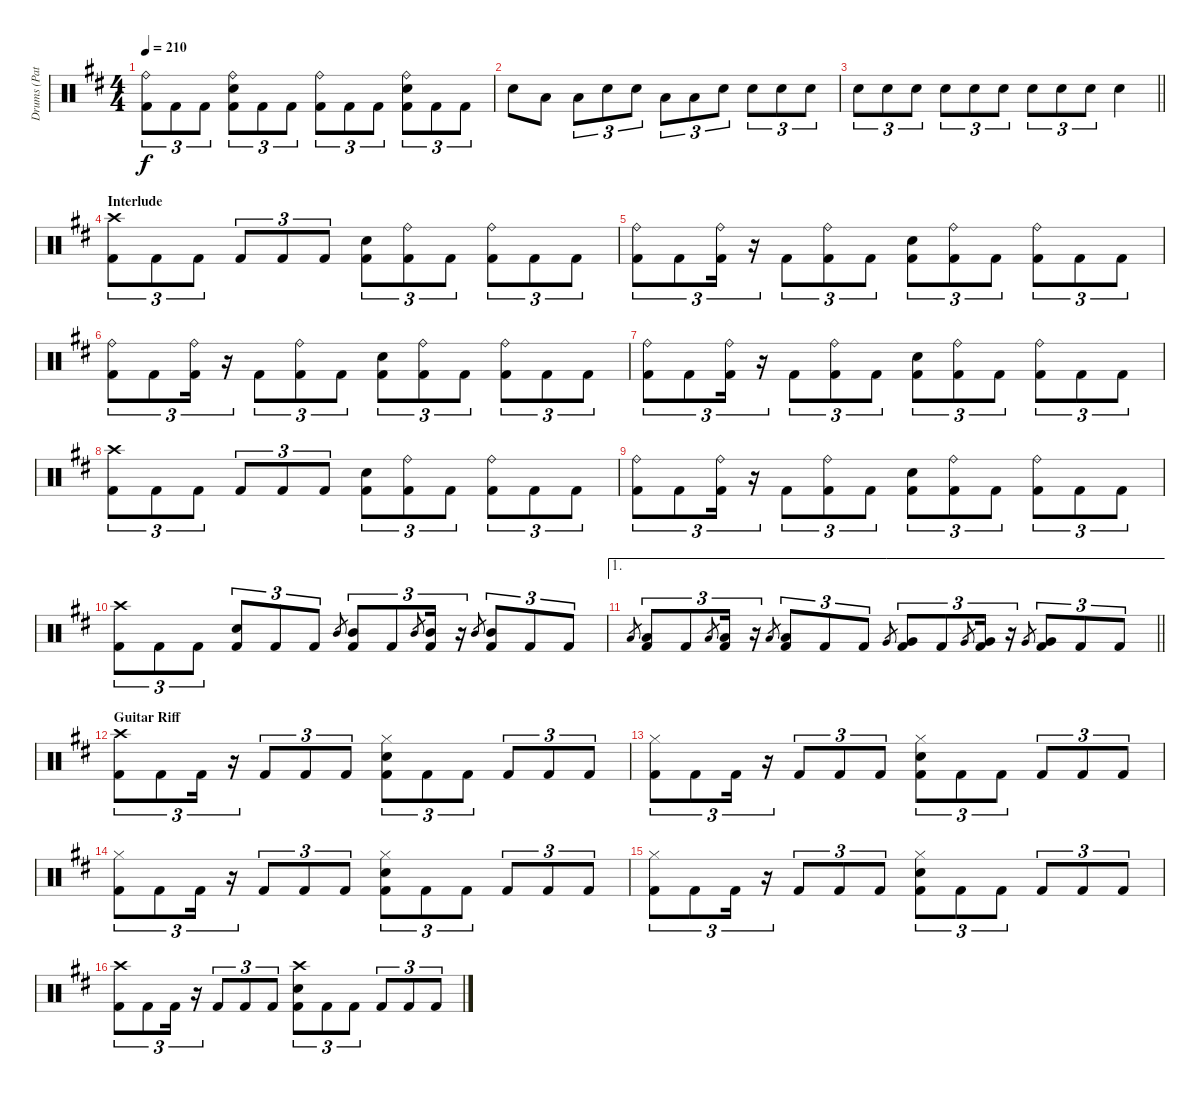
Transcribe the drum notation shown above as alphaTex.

\track ("Drums (Patrick Johansson)" "Drums (Pat") {instrument percussion}
\staff {score}
\articulation defaults
\ts (4 4)
\tempo 210
\clef neutral
\ks d
("Ride (bell)" "Kick (hit) 2").8{tu (3 2) dy f} "Kick (hit) 2".8{tu (3 2)} "Kick (hit) 2".8{tu (3 2)} ("Ride (bell)" "Electric Snare (hit)" "Kick (hit) 2").8{tu (3 2)} "Kick (hit) 2".8{tu (3 2)} "Kick (hit) 2".8{tu (3 2)} ("Ride (bell)" "Kick (hit) 2").8{tu (3 2)} "Kick (hit) 2".8{tu (3 2)} "Kick (hit) 2".8{tu (3 2)} ("Ride (bell)" "Electric Snare (hit)" "Kick (hit) 2").8{tu (3 2)} "Kick (hit) 2".8{tu (3 2)} "Kick (hit) 2".8{tu (3 2)} |
"Electric Snare (hit)".8 "Low Tom (hit)".8 "Low Tom (hit)".8{tu (3 2)} "Electric Snare (hit)".8{tu (3 2)} "Electric Snare (hit)".8{tu (3 2)} "Low Tom (hit)".8{tu (3 2)} "Low Tom (hit)".8{tu (3 2)} "Electric Snare (hit)".8{tu (3 2)} "Electric Snare (hit)".8{tu (3 2)} "Electric Snare (hit)".8{tu (3 2)} "Electric Snare (hit)".8{tu (3 2)} |
\barLineRight lightlight "Electric Snare (hit)".8{tu (3 2)} "Electric Snare (hit)".8{tu (3 2)} "Electric Snare (hit)".8{tu (3 2)} "Electric Snare (hit)".8{tu (3 2)} "Electric Snare (hit)".8{tu (3 2)} "Electric Snare (hit)".8{tu (3 2)} "Electric Snare (hit)".8{tu (3 2)} "Electric Snare (hit)".8{tu (3 2)} "Electric Snare (hit)".8{tu (3 2)} "Electric Snare (hit)".4
|
\section ("" "Interlude")
("Crash high (hit)" "Kick (hit) 2").8{tu (3 2)} "Kick (hit) 2".8{tu (3 2)} "Kick (hit) 2".8{tu (3 2)} "Kick (hit) 2".8{tu (3 2)} "Kick (hit) 2".8{tu (3 2)} "Kick (hit) 2".8{tu (3 2)} ("Electric Snare (hit)" "Kick (hit) 2").8{tu (3 2)} ("Ride (bell)" "Kick (hit) 2").8{tu (3 2)} "Kick (hit) 2".8{tu (3 2)} ("Ride (bell)" "Kick (hit) 2").8{tu (3 2)} "Kick (hit) 2".8{tu (3 2)} "Kick (hit) 2".8{tu (3 2)} |
("Ride (bell)" "Kick (hit) 2").8{tu (3 2)} "Kick (hit) 2".8{tu (3 2)} ("Ride (bell)" "Kick (hit) 2").16{tu (3 2)} r.16{tu (3 2)} "Kick (hit) 2".8{tu (3 2)} ("Ride (bell)" "Kick (hit) 2").8{tu (3 2)} "Kick (hit) 2".8{tu (3 2)} ("Electric Snare (hit)" "Kick (hit) 2").8{tu (3 2)} ("Ride (bell)" "Kick (hit) 2").8{tu (3 2)} "Kick (hit) 2".8{tu (3 2)} ("Ride (bell)" "Kick (hit) 2").8{tu (3 2)} "Kick (hit) 2".8{tu (3 2)} "Kick (hit) 2".8{tu (3 2)} |
("Ride (bell)" "Kick (hit) 2").8{tu (3 2)} "Kick (hit) 2".8{tu (3 2)} ("Ride (bell)" "Kick (hit) 2").16{tu (3 2)} r.16{tu (3 2)} "Kick (hit) 2".8{tu (3 2)} ("Ride (bell)" "Kick (hit) 2").8{tu (3 2)} "Kick (hit) 2".8{tu (3 2)} ("Electric Snare (hit)" "Kick (hit) 2").8{tu (3 2)} ("Ride (bell)" "Kick (hit) 2").8{tu (3 2)} "Kick (hit) 2".8{tu (3 2)} ("Ride (bell)" "Kick (hit) 2").8{tu (3 2)} "Kick (hit) 2".8{tu (3 2)} "Kick (hit) 2".8{tu (3 2)} |
("Ride (bell)" "Kick (hit) 2").8{tu (3 2)} "Kick (hit) 2".8{tu (3 2)} ("Ride (bell)" "Kick (hit) 2").16{tu (3 2)} r.16{tu (3 2)} "Kick (hit) 2".8{tu (3 2)} ("Ride (bell)" "Kick (hit) 2").8{tu (3 2)} "Kick (hit) 2".8{tu (3 2)} ("Electric Snare (hit)" "Kick (hit) 2").8{tu (3 2)} ("Ride (bell)" "Kick (hit) 2").8{tu (3 2)} "Kick (hit) 2".8{tu (3 2)} ("Ride (bell)" "Kick (hit) 2").8{tu (3 2)} "Kick (hit) 2".8{tu (3 2)} "Kick (hit) 2".8{tu (3 2)} |
("Crash high (hit)" "Kick (hit) 2").8{tu (3 2)} "Kick (hit) 2".8{tu (3 2)} "Kick (hit) 2".8{tu (3 2)} "Kick (hit) 2".8{tu (3 2)} "Kick (hit) 2".8{tu (3 2)} "Kick (hit) 2".8{tu (3 2)} ("Electric Snare (hit)" "Kick (hit) 2").8{tu (3 2)} ("Ride (bell)" "Kick (hit) 2").8{tu (3 2)} "Kick (hit) 2".8{tu (3 2)} ("Ride (bell)" "Kick (hit) 2").8{tu (3 2)} "Kick (hit) 2".8{tu (3 2)} "Kick (hit) 2".8{tu (3 2)} |
("Ride (bell)" "Kick (hit) 2").8{tu (3 2)} "Kick (hit) 2".8{tu (3 2)} ("Ride (bell)" "Kick (hit) 2").16{tu (3 2)} r.16{tu (3 2)} "Kick (hit) 2".8{tu (3 2)} ("Ride (bell)" "Kick (hit) 2").8{tu (3 2)} "Kick (hit) 2".8{tu (3 2)} ("Electric Snare (hit)" "Kick (hit) 2").8{tu (3 2)} ("Ride (bell)" "Kick (hit) 2").8{tu (3 2)} "Kick (hit) 2".8{tu (3 2)} ("Ride (bell)" "Kick (hit) 2").8{tu (3 2)} "Kick (hit) 2".8{tu (3 2)} "Kick (hit) 2".8{tu (3 2)} |
("Crash high (hit)" "Kick (hit) 2").8{tu (3 2)} "Kick (hit) 2".8{tu (3 2)} "Kick (hit) 2".8{tu (3 2)} ("Electric Snare (hit)" "Kick (hit) 2").8{tu (3 2)} "Kick (hit) 2".8{tu (3 2)} "Kick (hit) 2".8{tu (3 2)} "Mid Tom (hit)".8{gr} ("Mid Tom (hit)" "Kick (hit) 2").8{tu (3 2)} "Kick (hit) 2".8{tu (3 2)} "Mid Tom (hit)".8{gr} ("Mid Tom (hit)" "Kick (hit) 2").16{tu (3 2)} r.16{tu (3 2)} "Mid Tom (hit)".8{gr} ("Mid Tom (hit)" "Kick (hit) 2").8{tu (3 2)} "Kick (hit) 2".8{tu (3 2)} "Kick (hit) 2".8{tu (3 2)} |
\ae 1
\barLineRight lightlight "Low Tom (hit)".8{gr}
("Low Tom (hit)" "Kick (hit) 2").8{tu (3 2)} "Kick (hit) 2".8{tu (3 2)} "Low Tom (hit)".8{gr} ("Low Tom (hit)" "Kick (hit) 2").16{tu (3 2)} r.16{tu (3 2)} "Low Tom (hit)".8{gr} ("Low Tom (hit)" "Kick (hit) 2").8{tu (3 2)} "Kick (hit) 2".8{tu (3 2)} "Kick (hit) 2".8{tu (3 2)} "Very Low Tom (hit)".8{gr} ("Very Low Tom (hit)" "Kick (hit) 2").8{tu (3 2)} "Kick (hit) 2".8{tu (3 2)} "Very Low Tom (hit)".8{gr} ("Very Low Tom (hit)" "Kick (hit) 2").16{tu (3 2)} r.16{tu (3 2)} "Very Low Tom (hit)".8{gr} ("Very Low Tom (hit)" "Kick (hit) 2").8{tu (3 2)} "Kick (hit) 2".8{tu (3 2)} "Kick (hit) 2".8{tu (3 2)} |
\section ("" "Guitar Riff")
("Crash high (hit)" "Kick (hit) 2").8{tu (3 2)} "Kick (hit) 2".8{tu (3 2)} "Kick (hit) 2".16{tu (3 2)} r.16{tu (3 2)} "Kick (hit) 2".8{tu (3 2)} "Kick (hit) 2".8{tu (3 2)} "Kick (hit) 2".8{tu (3 2)} ("Electric Snare (hit)" "Hi-Hat (closed)" "Kick (hit) 2").8{tu (3 2)} "Kick (hit) 2".8{tu (3 2)} "Kick (hit) 2".8{tu (3 2)} "Kick (hit) 2".8{tu (3 2)} "Kick (hit) 2".8{tu (3 2)} "Kick (hit) 2".8{tu (3 2)} |
("Hi-Hat (closed)" "Kick (hit) 2").8{tu (3 2)} "Kick (hit) 2".8{tu (3 2)} "Kick (hit) 2".16{tu (3 2)} r.16{tu (3 2)} "Kick (hit) 2".8{tu (3 2)} "Kick (hit) 2".8{tu (3 2)} "Kick (hit) 2".8{tu (3 2)} ("Electric Snare (hit)" "Hi-Hat (closed)" "Kick (hit) 2").8{tu (3 2)} "Kick (hit) 2".8{tu (3 2)} "Kick (hit) 2".8{tu (3 2)} "Kick (hit) 2".8{tu (3 2)} "Kick (hit) 2".8{tu (3 2)} "Kick (hit) 2".8{tu (3 2)} |
("Hi-Hat (closed)" "Kick (hit) 2").8{tu (3 2)} "Kick (hit) 2".8{tu (3 2)} "Kick (hit) 2".16{tu (3 2)} r.16{tu (3 2)} "Kick (hit) 2".8{tu (3 2)} "Kick (hit) 2".8{tu (3 2)} "Kick (hit) 2".8{tu (3 2)} ("Electric Snare (hit)" "Hi-Hat (closed)" "Kick (hit) 2").8{tu (3 2)} "Kick (hit) 2".8{tu (3 2)} "Kick (hit) 2".8{tu (3 2)} "Kick (hit) 2".8{tu (3 2)} "Kick (hit) 2".8{tu (3 2)} "Kick (hit) 2".8{tu (3 2)} |
("Hi-Hat (closed)" "Kick (hit) 2").8{tu (3 2)} "Kick (hit) 2".8{tu (3 2)} "Kick (hit) 2".16{tu (3 2)} r.16{tu (3 2)} "Kick (hit) 2".8{tu (3 2)} "Kick (hit) 2".8{tu (3 2)} "Kick (hit) 2".8{tu (3 2)} ("Electric Snare (hit)" "Hi-Hat (closed)" "Kick (hit) 2").8{tu (3 2)} "Kick (hit) 2".8{tu (3 2)} "Kick (hit) 2".8{tu (3 2)} "Kick (hit) 2".8{tu (3 2)} "Kick (hit) 2".8{tu (3 2)} "Kick (hit) 2".8{tu (3 2)} |
("Crash high (hit)" "Kick (hit) 2").8{tu (3 2)} "Kick (hit) 2".8{tu (3 2)} "Kick (hit) 2".16{tu (3 2)} r.16{tu (3 2)} "Kick (hit) 2".8{tu (3 2)} "Kick (hit) 2".8{tu (3 2)} "Kick (hit) 2".8{tu (3 2)} ("Crash high (hit)" "Electric Snare (hit)" "Kick (hit) 2").8{tu (3 2)} "Kick (hit) 2".8{tu (3 2)} "Kick (hit) 2".8{tu (3 2)} "Kick (hit) 2".8{tu (3 2)} "Kick (hit) 2".8{tu (3 2)} "Kick (hit) 2".8{tu (3 2)}
